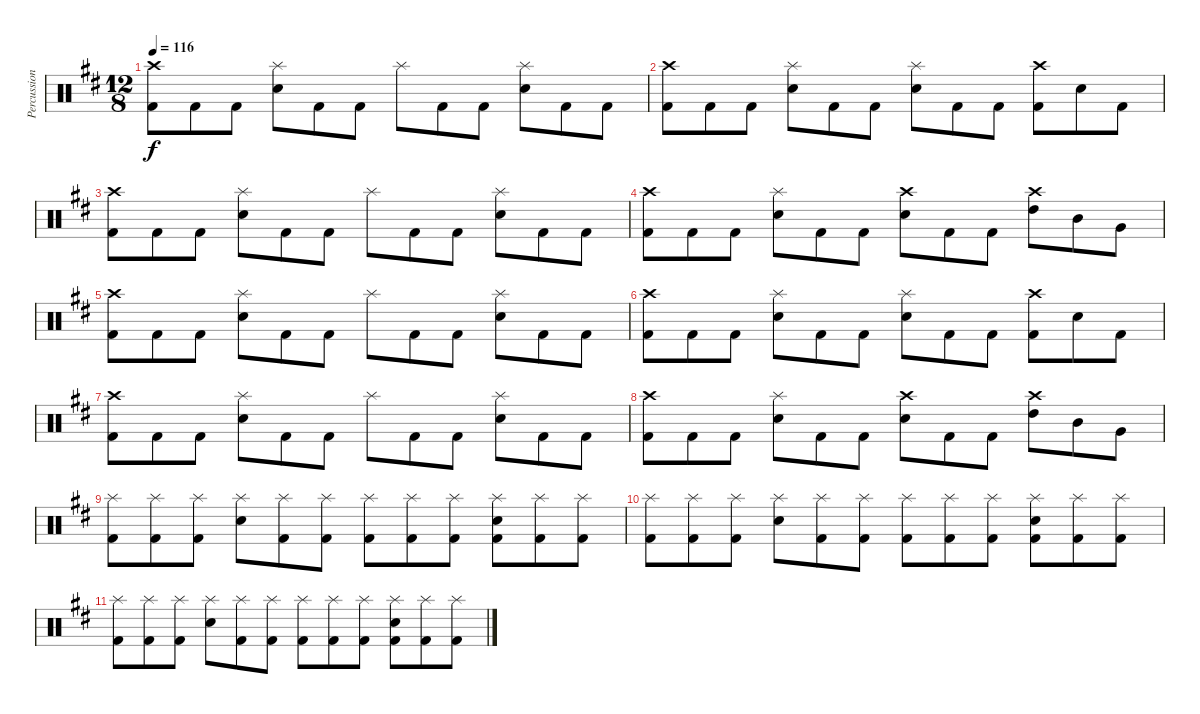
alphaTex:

\track ("Percussion" "Percussion") {instrument percussion}
\staff {score}
\articulation defaults
\ts (12 8)
\tempo 116
\clef neutral
\ks bminor
("Crash high (hit)" "Kick (hit) 2").8{dy f} "Kick (hit) 2".8 "Kick (hit) 2".8 ("Splash (hit)" "Snare (hit) 2").8 "Kick (hit) 2".8 "Kick (hit) 2".8 "Splash (hit)".8 "Kick (hit) 2".8 "Kick (hit) 2".8 ("Splash (hit)" "Snare (hit) 2").8 "Kick (hit) 2".8 "Kick (hit) 2".8 |
("Crash high (hit)" "Kick (hit) 2").8 "Kick (hit) 2".8 "Kick (hit) 2".8 ("Splash (hit)" "Snare (hit) 2").8 "Kick (hit) 2".8 "Kick (hit) 2".8 ("Splash (hit)" "Snare (hit) 2").8 "Kick (hit) 2".8 "Kick (hit) 2".8 ("Crash high (hit)" "Kick (hit) 2").8 "Snare (hit) 2".8 "Kick (hit) 2".8 |
("Crash high (hit)" "Kick (hit) 2").8 "Kick (hit) 2".8 "Kick (hit) 2".8 ("Splash (hit)" "Snare (hit) 2").8 "Kick (hit) 2".8 "Kick (hit) 2".8 "Splash (hit)".8 "Kick (hit) 2".8 "Kick (hit) 2".8 ("Splash (hit)" "Snare (hit) 2").8 "Kick (hit) 2".8 "Kick (hit) 2".8 |
("Crash high (hit)" "Kick (hit) 2").8 "Kick (hit) 2".8 "Kick (hit) 2".8 ("Splash (hit)" "Snare (hit) 2").8 "Kick (hit) 2".8 "Kick (hit) 2".8 ("Crash high (hit)" "Snare (hit) 2").8 "Kick (hit) 2".8 "Kick (hit) 2".8 ("Crash high (hit)" "High Tom (hit)").8 "Mid Tom (hit)".8 "Very Low Tom (hit)".8 |
("Crash high (hit)" "Kick (hit) 2").8 "Kick (hit) 2".8 "Kick (hit) 2".8 ("Splash (hit)" "Snare (hit) 2").8 "Kick (hit) 2".8 "Kick (hit) 2".8 "Splash (hit)".8 "Kick (hit) 2".8 "Kick (hit) 2".8 ("Splash (hit)" "Snare (hit) 2").8 "Kick (hit) 2".8 "Kick (hit) 2".8 |
("Crash high (hit)" "Kick (hit) 2").8 "Kick (hit) 2".8 "Kick (hit) 2".8 ("Splash (hit)" "Snare (hit) 2").8 "Kick (hit) 2".8 "Kick (hit) 2".8 ("Splash (hit)" "Snare (hit) 2").8 "Kick (hit) 2".8 "Kick (hit) 2".8 ("Crash high (hit)" "Kick (hit) 2").8 "Snare (hit) 2".8 "Kick (hit) 2".8 |
("Crash high (hit)" "Kick (hit) 2").8 "Kick (hit) 2".8 "Kick (hit) 2".8 ("Splash (hit)" "Snare (hit) 2").8 "Kick (hit) 2".8 "Kick (hit) 2".8 "Splash (hit)".8 "Kick (hit) 2".8 "Kick (hit) 2".8 ("Splash (hit)" "Snare (hit) 2").8 "Kick (hit) 2".8 "Kick (hit) 2".8 |
("Crash high (hit)" "Kick (hit) 2").8 "Kick (hit) 2".8 "Kick (hit) 2".8 ("Splash (hit)" "Snare (hit) 2").8 "Kick (hit) 2".8 "Kick (hit) 2".8 ("Crash high (hit)" "Snare (hit) 2").8 "Kick (hit) 2".8 "Kick (hit) 2".8 ("Crash high (hit)" "High Tom (hit)").8 "Mid Tom (hit)".8 "Very Low Tom (hit)".8 |
("Splash (hit)" "Kick (hit) 2").8 ("Splash (hit)" "Kick (hit) 2").8 ("Splash (hit)" "Kick (hit) 2").8 ("Splash (hit)" "Snare (hit) 2").8 ("Splash (hit)" "Kick (hit) 2").8 ("Splash (hit)" "Kick (hit) 2").8 ("Splash (hit)" "Kick (hit) 2").8 ("Splash (hit)" "Kick (hit) 2").8 ("Splash (hit)" "Kick (hit) 2").8 ("Splash (hit)" "Snare (hit) 2" "Kick (hit) 2").8 ("Splash (hit)" "Kick (hit) 2").8 ("Splash (hit)" "Kick (hit) 2").8 |
("Splash (hit)" "Kick (hit) 2").8 ("Splash (hit)" "Kick (hit) 2").8 ("Splash (hit)" "Kick (hit) 2").8 ("Splash (hit)" "Snare (hit) 2").8 ("Splash (hit)" "Kick (hit) 2").8 ("Splash (hit)" "Kick (hit) 2").8 ("Splash (hit)" "Kick (hit) 2").8 ("Splash (hit)" "Kick (hit) 2").8 ("Splash (hit)" "Kick (hit) 2").8 ("Splash (hit)" "Snare (hit) 2" "Kick (hit) 2").8 ("Splash (hit)" "Kick (hit) 2").8 ("Splash (hit)" "Kick (hit) 2").8 |
("Splash (hit)" "Kick (hit) 2").8 ("Splash (hit)" "Kick (hit) 2").8 ("Splash (hit)" "Kick (hit) 2").8 ("Splash (hit)" "Snare (hit) 2").8 ("Splash (hit)" "Kick (hit) 2").8 ("Splash (hit)" "Kick (hit) 2").8 ("Splash (hit)" "Kick (hit) 2").8 ("Splash (hit)" "Kick (hit) 2").8 ("Splash (hit)" "Kick (hit) 2").8 ("Splash (hit)" "Snare (hit) 2" "Kick (hit) 2").8 ("Splash (hit)" "Kick (hit) 2").8 ("Splash (hit)" "Kick (hit) 2").8
